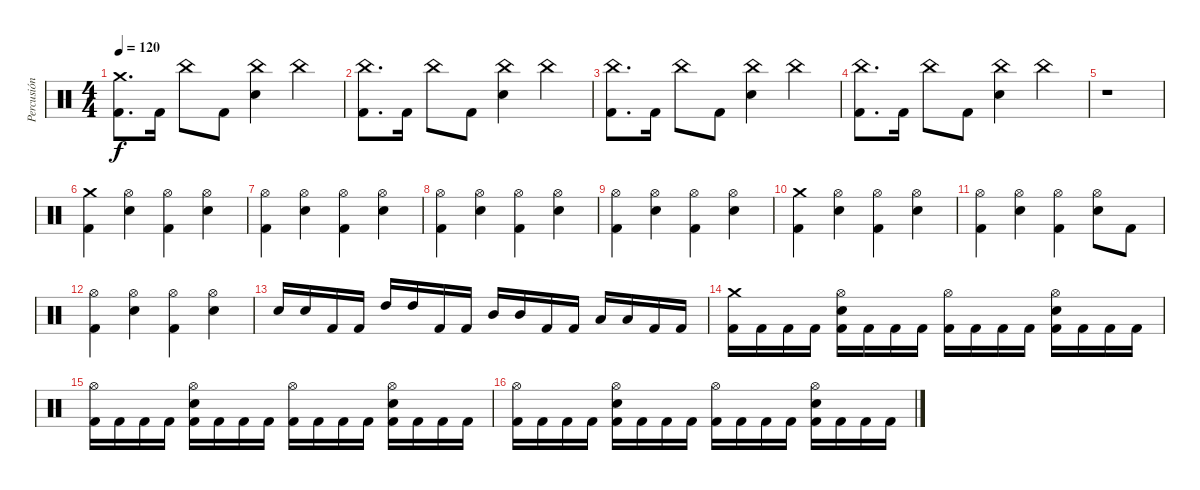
\track ("Percusión" "Percusión") {instrument percussion}
\staff {score}
\articulation defaults
\ts (4 4)
\tempo 120
\clef neutral
\ks c
("Kick (hit) 2" "Crash medium (hit)").8{d dy f} "Kick (hit) 2".16 "China (hit)".8 "Kick (hit) 2".8 ("Electric Snare (hit)" "China (hit)").4 "China (hit)".4 |
("Kick (hit) 2" "China (hit)").8{d} "Kick (hit) 2".16 "China (hit)".8 "Kick (hit) 2".8 ("Electric Snare (hit)" "China (hit)").4 "China (hit)".4 |
("Kick (hit) 2" "China (hit)").8{d} "Kick (hit) 2".16 "China (hit)".8 "Kick (hit) 2".8 ("Electric Snare (hit)" "China (hit)").4 "China (hit)".4 |
("Kick (hit) 2" "China (hit)").8{d} "Kick (hit) 2".16 "China (hit)".8 "Kick (hit) 2".8 ("Electric Snare (hit)" "China (hit)").4 "China (hit)".4 |
r.1 |
("Kick (hit) 2" "Crash medium (hit)").4 ("Electric Snare (hit)" "Hi-Hat (open)").4 ("Kick (hit) 2" "Hi-Hat (open)").4 ("Electric Snare (hit)" "Hi-Hat (open)").4 |
("Kick (hit) 2" "Hi-Hat (open)").4 ("Electric Snare (hit)" "Hi-Hat (open)").4 ("Kick (hit) 2" "Hi-Hat (open)").4 ("Electric Snare (hit)" "Hi-Hat (open)").4 |
("Kick (hit) 2" "Hi-Hat (open)").4 ("Electric Snare (hit)" "Hi-Hat (open)").4 ("Kick (hit) 2" "Hi-Hat (open)").4 ("Electric Snare (hit)" "Hi-Hat (open)").4 |
("Kick (hit) 2" "Hi-Hat (open)").4 ("Electric Snare (hit)" "Hi-Hat (open)").4 ("Kick (hit) 2" "Hi-Hat (open)").4 ("Electric Snare (hit)" "Hi-Hat (open)").4 |
("Kick (hit) 2" "Crash medium (hit)").4 ("Electric Snare (hit)" "Hi-Hat (open)").4 ("Kick (hit) 2" "Hi-Hat (open)").4 ("Electric Snare (hit)" "Hi-Hat (open)").4 |
("Kick (hit) 2" "Hi-Hat (open)").4 ("Electric Snare (hit)" "Hi-Hat (open)").4 ("Kick (hit) 2" "Hi-Hat (open)").4 ("Electric Snare (hit)" "Hi-Hat (open)").8 "Kick (hit) 2".8 |
("Kick (hit) 2" "Hi-Hat (open)").4 ("Electric Snare (hit)" "Hi-Hat (open)").4 ("Kick (hit) 2" "Hi-Hat (open)").4 ("Electric Snare (hit)" "Hi-Hat (open)").4 |
"Electric Snare (hit)".16 "Electric Snare (hit)".16 "Kick (hit) 2".16 "Kick (hit) 2".16 "High Tom (hit)".16 "High Tom (hit)".16 "Kick (hit) 2".16 "Kick (hit) 2".16 "Mid Tom (hit)".16 "Mid Tom (hit)".16 "Kick (hit) 2".16 "Kick (hit) 2".16 "Low Tom (hit)".16 "Low Tom (hit)".16 "Kick (hit) 2".16 "Kick (hit) 2".16 |
("Kick (hit) 2" "Crash medium (hit)").16 "Kick (hit) 2".16 "Kick (hit) 2".16 "Kick (hit) 2".16 ("Kick (hit) 2" "Electric Snare (hit)" "Hi-Hat (open)").16 "Kick (hit) 2".16 "Kick (hit) 2".16 "Kick (hit) 2".16 ("Kick (hit) 2" "Hi-Hat (open)").16 "Kick (hit) 2".16 "Kick (hit) 2".16 "Kick (hit) 2".16 ("Kick (hit) 2" "Electric Snare (hit)" "Hi-Hat (open)").16 "Kick (hit) 2".16 "Kick (hit) 2".16 "Kick (hit) 2".16 |
("Kick (hit) 2" "Hi-Hat (open)").16 "Kick (hit) 2".16 "Kick (hit) 2".16 "Kick (hit) 2".16 ("Kick (hit) 2" "Electric Snare (hit)" "Hi-Hat (open)").16 "Kick (hit) 2".16 "Kick (hit) 2".16 "Kick (hit) 2".16 ("Kick (hit) 2" "Hi-Hat (open)").16 "Kick (hit) 2".16 "Kick (hit) 2".16 "Kick (hit) 2".16 ("Kick (hit) 2" "Electric Snare (hit)" "Hi-Hat (open)").16 "Kick (hit) 2".16 "Kick (hit) 2".16 "Kick (hit) 2".16 |
("Kick (hit) 2" "Hi-Hat (open)").16 "Kick (hit) 2".16 "Kick (hit) 2".16 "Kick (hit) 2".16 ("Kick (hit) 2" "Electric Snare (hit)" "Hi-Hat (open)").16 "Kick (hit) 2".16 "Kick (hit) 2".16 "Kick (hit) 2".16 ("Kick (hit) 2" "Hi-Hat (open)").16 "Kick (hit) 2".16 "Kick (hit) 2".16 "Kick (hit) 2".16 ("Kick (hit) 2" "Electric Snare (hit)" "Hi-Hat (open)").16 "Kick (hit) 2".16 "Kick (hit) 2".16 "Kick (hit) 2".16
